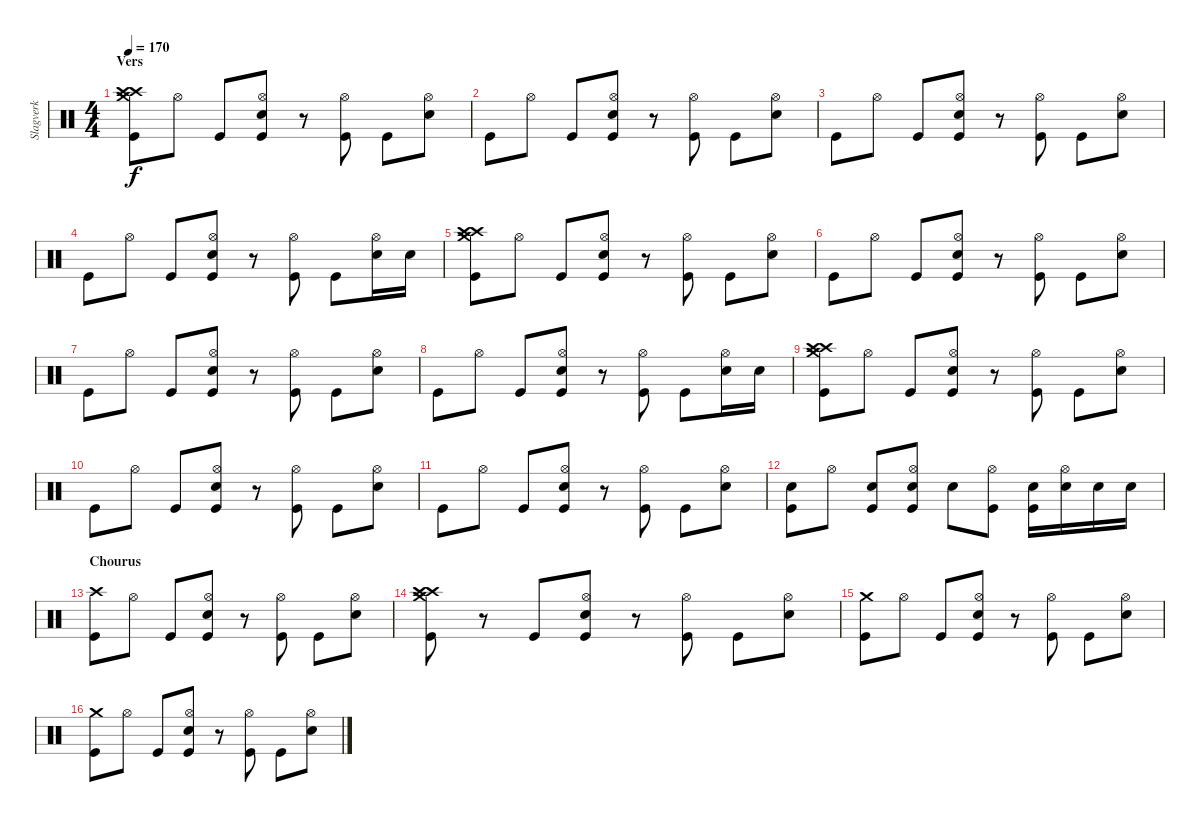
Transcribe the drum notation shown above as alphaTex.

\track ("Slagverk" "Slagverk") {instrument percussion}
\staff {score}
\articulation defaults
\ts (4 4)
\section ("" "Vers")
\tempo 170
\clef neutral
\ks c
("Crash high (hit)" "Crash high (hit)" "Crash medium (hit)" "Kick (hit)").8{dy f} "Hi-Hat (open)".8 "Kick (hit)".8 ("Hi-Hat (open)" "Snare (hit) 2" "Kick (hit)").8 r.8 ("Hi-Hat (open)" "Kick (hit)").8 "Kick (hit)".8 ("Hi-Hat (open)" "Snare (hit) 2").8 |
"Kick (hit)".8 "Hi-Hat (open)".8 "Kick (hit)".8 ("Hi-Hat (open)" "Snare (hit) 2" "Kick (hit)").8 r.8 ("Hi-Hat (open)" "Kick (hit)").8 "Kick (hit)".8 ("Hi-Hat (open)" "Snare (hit) 2").8 |
"Kick (hit)".8 "Hi-Hat (open)".8 "Kick (hit)".8 ("Hi-Hat (open)" "Snare (hit) 2" "Kick (hit)").8 r.8 ("Hi-Hat (open)" "Kick (hit)").8 "Kick (hit)".8 ("Hi-Hat (open)" "Snare (hit) 2").8 |
"Kick (hit)".8 "Hi-Hat (open)".8 "Kick (hit)".8 ("Hi-Hat (open)" "Snare (hit) 2" "Kick (hit)").8 r.8 ("Hi-Hat (open)" "Kick (hit)").8 "Kick (hit)".8 ("Hi-Hat (open)" "Snare (hit) 2").16 "Snare (hit) 2".16 |
("Crash high (hit)" "Crash high (hit)" "Crash medium (hit)" "Kick (hit)").8 "Hi-Hat (open)".8 "Kick (hit)".8 ("Hi-Hat (open)" "Snare (hit) 2" "Kick (hit)").8 r.8 ("Hi-Hat (open)" "Kick (hit)").8 "Kick (hit)".8 ("Hi-Hat (open)" "Snare (hit) 2").8 |
"Kick (hit)".8 "Hi-Hat (open)".8 "Kick (hit)".8 ("Hi-Hat (open)" "Snare (hit) 2" "Kick (hit)").8 r.8 ("Hi-Hat (open)" "Kick (hit)").8 "Kick (hit)".8 ("Hi-Hat (open)" "Snare (hit) 2").8 |
"Kick (hit)".8 "Hi-Hat (open)".8 "Kick (hit)".8 ("Hi-Hat (open)" "Snare (hit) 2" "Kick (hit)").8 r.8 ("Hi-Hat (open)" "Kick (hit)").8 "Kick (hit)".8 ("Hi-Hat (open)" "Snare (hit) 2").8 |
"Kick (hit)".8 "Hi-Hat (open)".8 "Kick (hit)".8 ("Hi-Hat (open)" "Snare (hit) 2" "Kick (hit)").8 r.8 ("Hi-Hat (open)" "Kick (hit)").8 "Kick (hit)".8 ("Hi-Hat (open)" "Snare (hit) 2").16 "Snare (hit) 2".16 |
("Crash high (hit)" "Crash high (hit)" "Crash medium (hit)" "Kick (hit)").8 "Hi-Hat (open)".8 "Kick (hit)".8 ("Hi-Hat (open)" "Snare (hit) 2" "Kick (hit)").8 r.8 ("Hi-Hat (open)" "Kick (hit)").8 "Kick (hit)".8 ("Hi-Hat (open)" "Snare (hit) 2").8 |
"Kick (hit)".8 "Hi-Hat (open)".8 "Kick (hit)".8 ("Hi-Hat (open)" "Snare (hit) 2" "Kick (hit)").8 r.8 ("Hi-Hat (open)" "Kick (hit)").8 "Kick (hit)".8 ("Hi-Hat (open)" "Snare (hit) 2").8 |
"Kick (hit)".8 "Hi-Hat (open)".8 "Kick (hit)".8 ("Hi-Hat (open)" "Snare (hit) 2" "Kick (hit)").8 r.8 ("Hi-Hat (open)" "Kick (hit)").8 "Kick (hit)".8 ("Hi-Hat (open)" "Snare (hit) 2").8 |
("Snare (hit) 2" "Kick (hit)").8 "Hi-Hat (open)".8 ("Snare (hit) 2" "Kick (hit)").8 ("Hi-Hat (open)" "Snare (hit) 2" "Kick (hit)").8 "Snare (hit) 2".8 ("Hi-Hat (open)" "Kick (hit)").8 ("Snare (hit) 2" "Kick (hit)").16 ("Hi-Hat (open)" "Snare (hit) 2").16 "Snare (hit) 2".16 "Snare (hit) 2".16 |
\section ("" "Chourus")
("Crash high (hit)" "Kick (hit)").8 "Hi-Hat (open)".8 "Kick (hit)".8 ("Hi-Hat (open)" "Snare (hit) 2" "Kick (hit)").8 r.8 ("Hi-Hat (open)" "Kick (hit)").8 "Kick (hit)".8 ("Hi-Hat (open)" "Snare (hit) 2").8 |
("Crash high (hit)" "Crash high (hit)" "Crash medium (hit)" "Kick (hit)").8 r.8 "Kick (hit)".8 ("Hi-Hat (open)" "Snare (hit) 2" "Kick (hit)").8 r.8 ("Hi-Hat (open)" "Kick (hit)").8 "Kick (hit)".8 ("Hi-Hat (open)" "Snare (hit) 2").8 |
("Crash medium (hit)" "Kick (hit)").8 "Hi-Hat (open)".8 "Kick (hit)".8 ("Hi-Hat (open)" "Snare (hit) 2" "Kick (hit)").8 r.8 ("Hi-Hat (open)" "Kick (hit)").8 "Kick (hit)".8 ("Hi-Hat (open)" "Snare (hit) 2").8 |
("Crash medium (hit)" "Kick (hit)").8 "Hi-Hat (open)".8 "Kick (hit)".8 ("Hi-Hat (open)" "Snare (hit) 2" "Kick (hit)").8 r.8 ("Hi-Hat (open)" "Kick (hit)").8 "Kick (hit)".8 ("Hi-Hat (open)" "Snare (hit) 2").8
